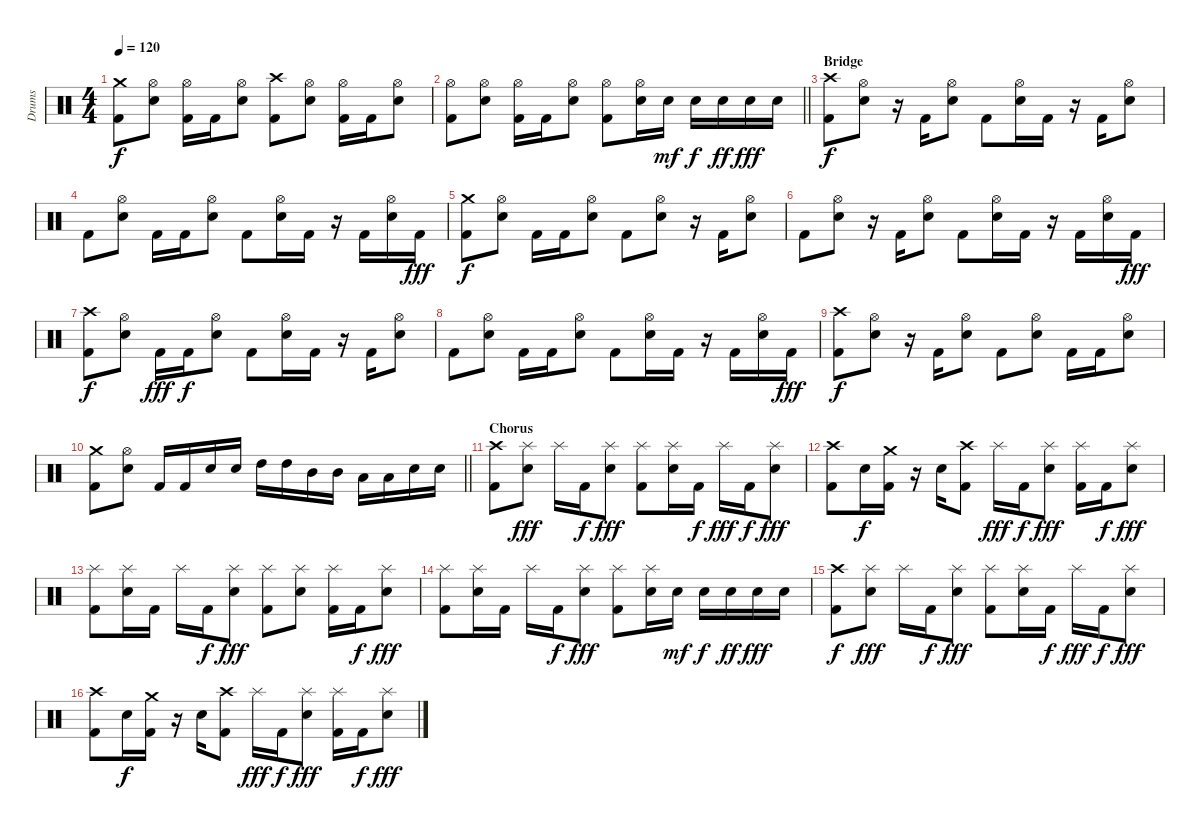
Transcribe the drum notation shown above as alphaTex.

\track ("Drums" "Drums") {instrument percussion}
\staff {score}
\articulation defaults
\ts (4 4)
\tempo 120
\clef neutral
\ks c
("Crash medium (hit)" "Kick (hit) 2").8{dy f} ("Hi-Hat (open)" "Snare (hit) 2").8 ("Hi-Hat (open)" "Kick (hit) 2").16 "Kick (hit) 2".16 ("Hi-Hat (open)" "Snare (hit) 2").8 ("Crash high (hit)" "Kick (hit) 2").8 ("Hi-Hat (open)" "Snare (hit) 2").8 ("Hi-Hat (open)" "Kick (hit) 2").16 "Kick (hit) 2".16 ("Hi-Hat (open)" "Snare (hit) 2").8 |
\barLineRight lightlight
("Hi-Hat (open)" "Kick (hit) 2").8 ("Hi-Hat (open)" "Snare (hit) 2").8 ("Hi-Hat (open)" "Kick (hit) 2").16 "Kick (hit) 2".16 ("Hi-Hat (open)" "Snare (hit) 2").8 ("Hi-Hat (open)" "Kick (hit) 2").8 ("Hi-Hat (open)" "Snare (hit) 2").16 "Snare (hit) 2".16{dy mf} "Snare (hit) 2".16{dy f} "Snare (hit) 2".16{dy ff} "Snare (hit) 2".16{dy fff} "Snare (hit) 2".16 |
\section ("" "Bridge")
("Crash high (hit)" "Kick (hit) 2").8{dy f} ("Hi-Hat (open)" "Snare (hit) 2").8 r.16 "Kick (hit) 2".16 ("Hi-Hat (open)" "Snare (hit) 2").8 "Kick (hit) 2".8 ("Hi-Hat (open)" "Snare (hit) 2").16 "Kick (hit) 2".16 r.16 "Kick (hit) 2".16 ("Hi-Hat (open)" "Snare (hit) 2").8 |
"Kick (hit) 2".8 ("Hi-Hat (open)" "Snare (hit) 2").8 "Kick (hit) 2".16 "Kick (hit) 2".16 ("Hi-Hat (open)" "Snare (hit) 2").8 "Kick (hit) 2".8 ("Hi-Hat (open)" "Snare (hit) 2").16 "Kick (hit) 2".16 r.16 "Kick (hit) 2".16 ("Hi-Hat (open)" "Snare (hit) 2").16 "Kick (hit) 2".16{dy fff} |
("Crash medium (hit)" "Kick (hit) 2").8{dy f} ("Hi-Hat (open)" "Snare (hit) 2").8 "Kick (hit) 2".16 "Kick (hit) 2".16 ("Hi-Hat (open)" "Snare (hit) 2").8 "Kick (hit) 2".8 ("Hi-Hat (open)" "Snare (hit) 2").8 r.16 "Kick (hit) 2".16 ("Hi-Hat (open)" "Snare (hit) 2").8 |
"Kick (hit) 2".8 ("Hi-Hat (open)" "Snare (hit) 2").8 r.16 "Kick (hit) 2".16 ("Hi-Hat (open)" "Snare (hit) 2").8 "Kick (hit) 2".8 ("Hi-Hat (open)" "Snare (hit) 2").16 "Kick (hit) 2".16 r.16 "Kick (hit) 2".16 ("Hi-Hat (open)" "Snare (hit) 2").16 "Kick (hit) 2".16{dy fff} |
("Crash high (hit)" "Kick (hit) 2").8{dy f} ("Hi-Hat (open)" "Snare (hit) 2").8 "Kick (hit) 2".16{dy fff} "Kick (hit) 2".16{dy f} ("Hi-Hat (open)" "Snare (hit) 2").8 "Kick (hit) 2".8 ("Hi-Hat (open)" "Snare (hit) 2").16 "Kick (hit) 2".16 r.16 "Kick (hit) 2".16 ("Hi-Hat (open)" "Snare (hit) 2").8 |
"Kick (hit) 2".8 ("Hi-Hat (open)" "Snare (hit) 2").8 "Kick (hit) 2".16 "Kick (hit) 2".16 ("Hi-Hat (open)" "Snare (hit) 2").8 "Kick (hit) 2".8 ("Hi-Hat (open)" "Snare (hit) 2").16 "Kick (hit) 2".16 r.16 "Kick (hit) 2".16 ("Hi-Hat (open)" "Snare (hit) 2").16 "Kick (hit) 2".16{dy fff} |
("Crash high (hit)" "Kick (hit) 2").8{dy f} ("Hi-Hat (open)" "Snare (hit) 2").8 r.16 "Kick (hit) 2".16 ("Hi-Hat (open)" "Snare (hit) 2").8 "Kick (hit) 2".8 ("Hi-Hat (open)" "Snare (hit) 2").8 "Kick (hit) 2".16 "Kick (hit) 2".16 ("Hi-Hat (open)" "Snare (hit) 2").8 |
\barLineRight lightlight
("Crash medium (hit)" "Kick (hit) 2").8 ("Hi-Hat (open)" "Snare (hit) 2").8 "Kick (hit) 2".16 "Kick (hit) 2".16 "Snare (hit) 2".16 "Snare (hit) 2".16 "High Tom (hit)".16 "High Tom (hit)".16 "Mid Tom (hit)".16 "Mid Tom (hit)".16 "Low Tom (hit)".16 "Low Tom (hit)".16 "Snare (hit) 2".16 "Snare (hit) 2".16 |
\section ("" "Chorus")
("Crash high (hit)" "Kick (hit) 2").8 ("Splash (hit)" "Snare (hit) 2").8{dy fff} "Splash (hit)".16 "Kick (hit) 2".16{dy f} ("Splash (hit)" "Snare (hit) 2").8{dy fff} ("Splash (hit)" "Kick (hit) 2").8 ("Splash (hit)" "Snare (hit) 2").16 "Kick (hit) 2".16{dy f} "Splash (hit)".16{dy fff} "Kick (hit) 2".16{dy f} ("Splash (hit)" "Snare (hit) 2").8{dy fff} |
("Crash high (hit)" "Kick (hit) 2").8 "Snare (hit) 2".16{dy f} ("Crash medium (hit)" "Kick (hit) 2").16 r.16 "Snare (hit) 2".16 ("Crash high (hit)" "Kick (hit) 2").8 "Splash (hit)".16{dy fff} "Kick (hit) 2".16{dy f} ("Splash (hit)" "Snare (hit) 2").8{dy fff} ("Splash (hit)" "Kick (hit) 2").16 "Kick (hit) 2".16{dy f} ("Splash (hit)" "Snare (hit) 2").8{dy fff} |
("Splash (hit)" "Kick (hit) 2").8 ("Splash (hit)" "Snare (hit) 2").16 "Kick (hit) 2".16 "Splash (hit)".16 "Kick (hit) 2".16{dy f} ("Splash (hit)" "Snare (hit) 2").8{dy fff} ("Splash (hit)" "Kick (hit) 2").8 ("Splash (hit)" "Snare (hit) 2").8 ("Splash (hit)" "Kick (hit) 2").16 "Kick (hit) 2".16{dy f} ("Splash (hit)" "Snare (hit) 2").8{dy fff} |
("Splash (hit)" "Kick (hit) 2").8 ("Splash (hit)" "Snare (hit) 2").16 "Kick (hit) 2".16 "Splash (hit)".16 "Kick (hit) 2".16{dy f} ("Splash (hit)" "Snare (hit) 2").8{dy fff} ("Splash (hit)" "Kick (hit) 2").8 ("Splash (hit)" "Snare (hit) 2").16 "Snare (hit) 2".16{dy mf} "Snare (hit) 2".16{dy f} "Snare (hit) 2".16{dy ff} "Snare (hit) 2".16{dy fff} "Snare (hit) 2".16 |
("Crash high (hit)" "Kick (hit) 2").8{dy f} ("Splash (hit)" "Snare (hit) 2").8{dy fff} "Splash (hit)".16 "Kick (hit) 2".16{dy f} ("Splash (hit)" "Snare (hit) 2").8{dy fff} ("Splash (hit)" "Kick (hit) 2").8 ("Splash (hit)" "Snare (hit) 2").16 "Kick (hit) 2".16{dy f} "Splash (hit)".16{dy fff} "Kick (hit) 2".16{dy f} ("Splash (hit)" "Snare (hit) 2").8{dy fff} |
("Crash high (hit)" "Kick (hit) 2").8 "Snare (hit) 2".16{dy f} ("Crash medium (hit)" "Kick (hit) 2").16 r.16 "Snare (hit) 2".16 ("Crash high (hit)" "Kick (hit) 2").8 "Splash (hit)".16{dy fff} "Kick (hit) 2".16{dy f} ("Splash (hit)" "Snare (hit) 2").8{dy fff} ("Splash (hit)" "Kick (hit) 2").16 "Kick (hit) 2".16{dy f} ("Splash (hit)" "Snare (hit) 2").8{dy fff}
